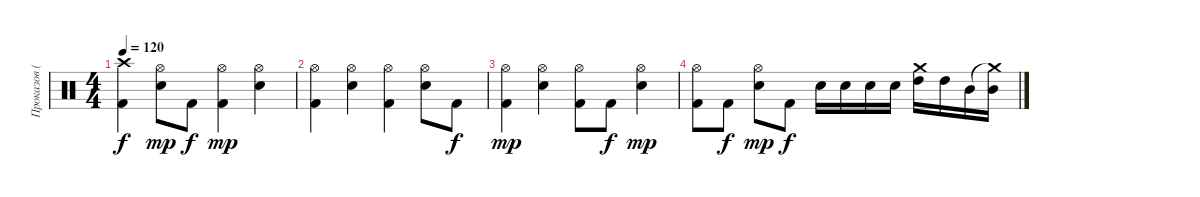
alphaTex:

\track ("Проказов (ударные)" "Проказов (") {instrument percussion}
\staff {score}
\articulation defaults
\ts (4 4)
\tempo 120
\clef neutral
\ks c
("Crash high (hit)" "Kick (hit) 2").4{dy f} ("Hi-Hat (open)" "Snare (hit) 2").8{dy mp} "Kick (hit) 2".8{dy f} ("Hi-Hat (open)" "Kick (hit) 2").4{dy mp} ("Hi-Hat (open)" "Snare (hit) 2").4 |
("Hi-Hat (open)" "Kick (hit) 2").4 ("Hi-Hat (open)" "Snare (hit) 2").4 ("Hi-Hat (open)" "Kick (hit) 2").4 ("Hi-Hat (open)" "Snare (hit) 2").8 "Kick (hit) 2".8{dy f} |
("Hi-Hat (open)" "Kick (hit) 2").4{dy mp} ("Hi-Hat (open)" "Snare (hit) 2").4 ("Hi-Hat (open)" "Kick (hit) 2").8 "Kick (hit) 2".8{dy f} ("Hi-Hat (open)" "Snare (hit) 2").4{dy mp} |
("Hi-Hat (open)" "Kick (hit) 2").8 "Kick (hit) 2".8{dy f} ("Hi-Hat (open)" "Snare (hit) 2").8{dy mp} "Kick (hit) 2".8{dy f} "Snare (hit) 2".16 "Snare (hit) 2".16 "Snare (hit) 2".16 "Snare (hit) 2".16 ("Crash medium (hit)" "High Tom (hit)").16 "High Tom (hit)".16 "Mid Tom (hit)".16 ("Crash medium (hit)"{t} "Mid Tom (hit)").16
